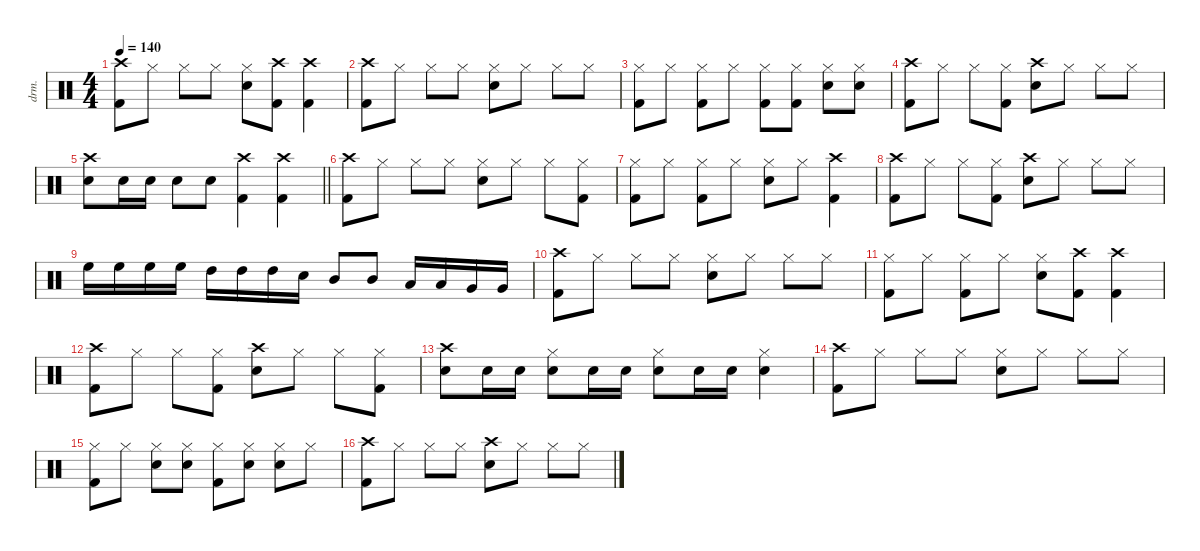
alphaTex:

\defaultSystemsLayout 4
\hideDynamics
\bracketExtendMode nobrackets
\otherSystemsTrackNameOrientation horizontal
\track ("Drums" "drm.") {defaultSystemsLayout 4 instrument percussion}
\staff {score}
\articulation defaults
\ts (4 4)
\tempo 140
\clef neutral
\ks c
("Crash high (hit)" "Kick (hit) 2").8{dy f beam Down} "Hi-Hat (closed)".8{beam Down} "Hi-Hat (closed)".8{beam Down} "Hi-Hat (closed)".8{beam Down} ("Hi-Hat (closed)" "Snare (hit) 2").8{beam Down} ("Crash high (hit)" "Kick (hit) 2").8{beam Down} ("Crash high (hit)" "Kick (hit) 2").4{beam Down} |
("Crash high (hit)" "Kick (hit) 2").8{beam Down} "Hi-Hat (closed)".8{beam Down} "Hi-Hat (closed)".8{beam Down} "Hi-Hat (closed)".8{beam Down} ("Hi-Hat (closed)" "Snare (hit) 2").8{beam Down} "Hi-Hat (closed)".8{beam Down} "Hi-Hat (closed)".8{beam Down} "Hi-Hat (closed)".8{beam Down} |
("Hi-Hat (closed)" "Kick (hit) 2").8{beam Down} "Hi-Hat (closed)".8{beam Down} ("Hi-Hat (closed)" "Kick (hit) 2").8{beam Down} "Hi-Hat (closed)".8{beam Down} ("Hi-Hat (closed)" "Kick (hit) 2").8{beam Down} ("Hi-Hat (closed)" "Kick (hit) 2").8{beam Down} ("Hi-Hat (closed)" "Snare (hit) 2").8{beam Down} ("Hi-Hat (closed)" "Snare (hit) 2").8{beam Down} |
("Crash high (hit)" "Kick (hit) 2").8{beam Down} "Hi-Hat (closed)".8{beam Down} "Hi-Hat (closed)".8{beam Down} ("Hi-Hat (closed)" "Kick (hit) 2").8{beam Down} ("Crash high (hit)" "Snare (hit) 2").8{beam Down} "Hi-Hat (closed)".8{beam Down} "Hi-Hat (closed)".8{beam Down} "Hi-Hat (closed)".8{beam Down} |
\barLineRight lightlight
("Crash high (hit)" "Snare (hit) 2").8{beam Down} "Snare (hit) 2".16{beam Down} "Snare (hit) 2".16{beam Down} "Snare (hit) 2".8{beam Down} "Snare (hit) 2".8{beam Down} ("Crash high (hit)" "Kick (hit) 2").4{beam Down} ("Crash high (hit)" "Kick (hit) 2").4{beam Down} |
("Crash high (hit)" "Kick (hit) 2").8{beam Down} "Hi-Hat (closed)".8{beam Down} "Hi-Hat (closed)".8{beam Down} "Hi-Hat (closed)".8{beam Down} ("Hi-Hat (closed)" "Snare (hit) 2").8{beam Down} "Hi-Hat (closed)".8{beam Down} "Hi-Hat (closed)".8{beam Down} ("Hi-Hat (closed)" "Kick (hit) 2").8{beam Down} |
("Hi-Hat (closed)" "Kick (hit) 2").8{beam Down} "Hi-Hat (closed)".8{beam Down} ("Hi-Hat (closed)" "Kick (hit) 2").8{beam Down} "Hi-Hat (closed)".8{beam Down} ("Hi-Hat (closed)" "Snare (hit) 2").8{beam Down} "Hi-Hat (closed)".8{beam Down} ("Crash high (hit)" "Kick (hit) 2").4{beam Down} |
("Crash high (hit)" "Kick (hit) 2").8{beam Down} "Hi-Hat (closed)".8{beam Down} "Hi-Hat (closed)".8{beam Down} ("Hi-Hat (closed)" "Kick (hit) 2").8{beam Down} ("Crash high (hit)" "Snare (hit) 2").8{beam Down} "Hi-Hat (closed)".8{beam Down} "Hi-Hat (closed)".8{beam Down} "Hi-Hat (closed)".8{beam Down} |
"High Floor Tom (hit)".16{beam Down} "High Floor Tom (hit)".16{beam Down} "High Floor Tom (hit)".16{beam Down} "High Floor Tom (hit)".16{beam Down} "High Tom (hit)".16{beam Down} "High Tom (hit)".16{beam Down} "High Tom (hit)".16{beam Down} "Snare (hit) 2".16{beam Down} "Mid Tom (hit)".8{beam Up} "Mid Tom (hit)".8{beam Up} "Low Tom (hit)".16{beam Up} "Low Tom (hit)".16{beam Up} "Very Low Tom (hit)".16{beam Up} "Very Low Tom (hit)".16{beam Up} |
("Crash high (hit)" "Kick (hit) 2").8{beam Down} "Hi-Hat (closed)".8{beam Down} "Hi-Hat (closed)".8{beam Down} "Hi-Hat (closed)".8{beam Down} ("Hi-Hat (closed)" "Snare (hit) 2").8{beam Down} "Hi-Hat (closed)".8{beam Down} "Hi-Hat (closed)".8{beam Down} "Hi-Hat (closed)".8{beam Down} |
("Hi-Hat (closed)" "Kick (hit) 2").8{beam Down} "Hi-Hat (closed)".8{beam Down} ("Hi-Hat (closed)" "Kick (hit) 2").8{beam Down} "Hi-Hat (closed)".8{beam Down} ("Hi-Hat (closed)" "Snare (hit) 2").8{beam Down} ("Crash high (hit)" "Kick (hit) 2").8{beam Down} ("Crash high (hit)" "Kick (hit) 2").4{beam Down} |
("Crash high (hit)" "Kick (hit) 2").8{beam Down} "Hi-Hat (closed)".8{beam Down} "Hi-Hat (closed)".8{beam Down} ("Hi-Hat (closed)" "Kick (hit) 2").8{beam Down} ("Crash high (hit)" "Snare (hit) 2").8{beam Down} "Hi-Hat (closed)".8{beam Down} "Hi-Hat (closed)".8{beam Down} ("Hi-Hat (closed)" "Kick (hit) 2").8{beam Down} |
("Crash high (hit)" "Snare (hit) 2").8{beam Down} "Snare (hit) 2".16{beam Down} "Snare (hit) 2".16{beam Down} ("Hi-Hat (closed)" "Snare (hit) 2").8{beam Down} "Snare (hit) 2".16{beam Down} "Snare (hit) 2".16{beam Down} ("Hi-Hat (closed)" "Snare (hit) 2").8{beam Down} "Snare (hit) 2".16{beam Down} "Snare (hit) 2".16{beam Down} ("Hi-Hat (closed)" "Snare (hit) 2").4{beam Down} |
("Crash high (hit)" "Kick (hit) 2").8{beam Down} "Hi-Hat (closed)".8{beam Down} "Hi-Hat (closed)".8{beam Down} "Hi-Hat (closed)".8{beam Down} ("Hi-Hat (closed)" "Snare (hit) 2").8{beam Down} "Hi-Hat (closed)".8{beam Down} "Hi-Hat (closed)".8{beam Down} "Hi-Hat (closed)".8{beam Down} |
("Hi-Hat (closed)" "Kick (hit) 2").8{beam Down} "Hi-Hat (closed)".8{beam Down} ("Hi-Hat (closed)" "Snare (hit) 2").8{beam Down} ("Hi-Hat (closed)" "Snare (hit) 2").8{beam Down} ("Hi-Hat (closed)" "Kick (hit) 2").8{beam Down} ("Hi-Hat (closed)" "Snare (hit) 2").8{beam Down} ("Hi-Hat (closed)" "Snare (hit) 2").8{beam Down} "Hi-Hat (closed)".8{beam Down} |
("Crash high (hit)" "Kick (hit) 2").8{beam Down} "Hi-Hat (closed)".8{beam Down} "Hi-Hat (closed)".8{beam Down} "Hi-Hat (closed)".8{beam Down} ("Crash high (hit)" "Snare (hit) 2").8{beam Down} "Hi-Hat (closed)".8{beam Down} "Hi-Hat (closed)".8{beam Down} "Hi-Hat (closed)".8{beam Down}
